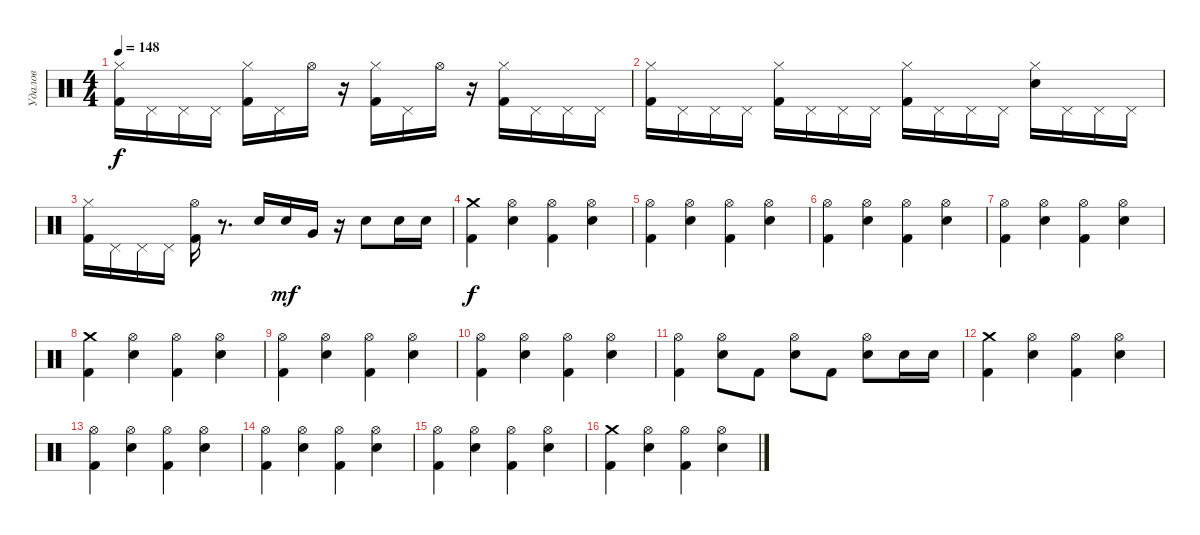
\track ("Удалов" "Удалов") {instrument percussion}
\staff {score}
\articulation defaults
\ts (4 4)
\tempo 148
\clef neutral
\ks c
("Kick (hit) 2" "Hi-Hat (closed)").16{dy f} "Pedal Hi-Hat (hit)".16 "Pedal Hi-Hat (hit)".16 "Pedal Hi-Hat (hit)".16 ("Kick (hit) 2" "Hi-Hat (closed)").16 "Pedal Hi-Hat (hit)".16 "Hi-Hat (open)".16 r.16 ("Kick (hit) 2" "Hi-Hat (closed)").16 "Pedal Hi-Hat (hit)".16 "Hi-Hat (open)".16 r.16 ("Kick (hit) 2" "Hi-Hat (closed)").16 "Pedal Hi-Hat (hit)".16 "Pedal Hi-Hat (hit)".16 "Pedal Hi-Hat (hit)".16 |
("Kick (hit) 2" "Hi-Hat (closed)").16 "Pedal Hi-Hat (hit)".16 "Pedal Hi-Hat (hit)".16 "Pedal Hi-Hat (hit)".16 ("Kick (hit) 2" "Hi-Hat (closed)").16 "Pedal Hi-Hat (hit)".16 "Pedal Hi-Hat (hit)".16 "Pedal Hi-Hat (hit)".16 ("Kick (hit) 2" "Hi-Hat (closed)").16 "Pedal Hi-Hat (hit)".16 "Pedal Hi-Hat (hit)".16 "Pedal Hi-Hat (hit)".16 ("Hi-Hat (closed)" "Snare (hit) 2").16 "Pedal Hi-Hat (hit)".16 "Pedal Hi-Hat (hit)".16 "Pedal Hi-Hat (hit)".16 |
("Kick (hit) 2" "Hi-Hat (closed)").16 "Pedal Hi-Hat (hit)".16 "Pedal Hi-Hat (hit)".16 "Pedal Hi-Hat (hit)".16 ("Kick (hit) 2" "Hi-Hat (open)").16 r.8{d} "Snare (hit) 2".16 "Snare (hit) 2".16{dy mf} "Very Low Tom (hit)".16 r.16 "Snare (hit) 2".8 "Snare (hit) 2".16 "Snare (hit) 2".16 |
("Kick (hit) 2" "Crash medium (hit)").4{dy f} ("Hi-Hat (open)" "Snare (hit) 2").4 ("Hi-Hat (open)" "Kick (hit) 2").4 ("Hi-Hat (open)" "Snare (hit) 2").4 |
("Kick (hit) 2" "Hi-Hat (open)").4 ("Snare (hit) 2" "Hi-Hat (open)").4 ("Kick (hit) 2" "Hi-Hat (open)").4 ("Snare (hit) 2" "Hi-Hat (open)").4 |
("Kick (hit) 2" "Hi-Hat (open)").4 ("Snare (hit) 2" "Hi-Hat (open)").4 ("Kick (hit) 2" "Hi-Hat (open)").4 ("Snare (hit) 2" "Hi-Hat (open)").4 |
("Kick (hit) 2" "Hi-Hat (open)").4 ("Snare (hit) 2" "Hi-Hat (open)").4 ("Kick (hit) 2" "Hi-Hat (open)").4 ("Snare (hit) 2" "Hi-Hat (open)").4 |
("Kick (hit) 2" "Crash medium (hit)").4 ("Hi-Hat (open)" "Snare (hit) 2").4 ("Hi-Hat (open)" "Kick (hit) 2").4 ("Hi-Hat (open)" "Snare (hit) 2").4 |
("Kick (hit) 2" "Hi-Hat (open)").4 ("Snare (hit) 2" "Hi-Hat (open)").4 ("Kick (hit) 2" "Hi-Hat (open)").4 ("Snare (hit) 2" "Hi-Hat (open)").4 |
("Kick (hit) 2" "Hi-Hat (open)").4 ("Snare (hit) 2" "Hi-Hat (open)").4 ("Kick (hit) 2" "Hi-Hat (open)").4 ("Snare (hit) 2" "Hi-Hat (open)").4 |
("Kick (hit) 2" "Hi-Hat (open)").4 ("Snare (hit) 2" "Hi-Hat (open)").8 "Kick (hit) 2".8 ("Snare (hit) 2" "Hi-Hat (open)").8 "Kick (hit) 2".8 ("Snare (hit) 2" "Hi-Hat (open)").8 "Snare (hit) 2".16 "Snare (hit) 2".16 |
("Kick (hit) 2" "Crash medium (hit)").4 ("Hi-Hat (open)" "Snare (hit) 2").4 ("Hi-Hat (open)" "Kick (hit) 2").4 ("Hi-Hat (open)" "Snare (hit) 2").4 |
("Kick (hit) 2" "Hi-Hat (open)").4 ("Snare (hit) 2" "Hi-Hat (open)").4 ("Kick (hit) 2" "Hi-Hat (open)").4 ("Snare (hit) 2" "Hi-Hat (open)").4 |
("Kick (hit) 2" "Hi-Hat (open)").4 ("Snare (hit) 2" "Hi-Hat (open)").4 ("Kick (hit) 2" "Hi-Hat (open)").4 ("Snare (hit) 2" "Hi-Hat (open)").4 |
("Kick (hit) 2" "Hi-Hat (open)").4 ("Snare (hit) 2" "Hi-Hat (open)").4 ("Kick (hit) 2" "Hi-Hat (open)").4 ("Snare (hit) 2" "Hi-Hat (open)").4 |
("Kick (hit) 2" "Crash medium (hit)").4 ("Hi-Hat (open)" "Snare (hit) 2").4 ("Hi-Hat (open)" "Kick (hit) 2").4 ("Hi-Hat (open)" "Snare (hit) 2").4
